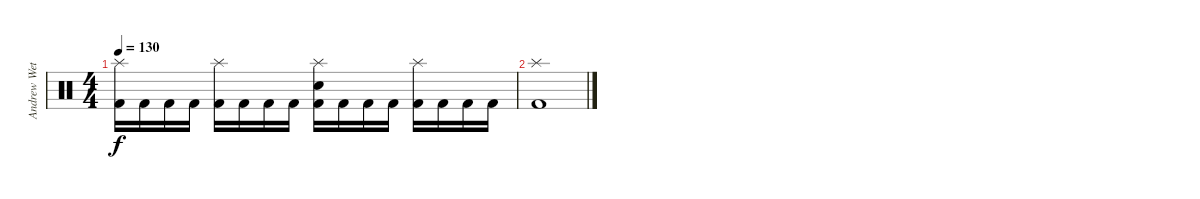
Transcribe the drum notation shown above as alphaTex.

\track ("Andrew Wetzel" "Andrew Wet") {instrument percussion}
\staff {score}
\articulation defaults
\ts (4 4)
\tempo 130
\clef neutral
\ks c
("Splash (hit)" "Kick (hit) 2").16{dy f} "Kick (hit) 2".16 "Kick (hit) 2".16 "Kick (hit) 2".16 ("Splash (hit)" "Kick (hit) 2").16 "Kick (hit) 2".16 "Kick (hit) 2".16 "Kick (hit) 2".16 ("Splash (hit)" "Electric Snare (hit)" "Kick (hit) 2").16 "Kick (hit) 2".16 "Kick (hit) 2".16 "Kick (hit) 2".16 ("Splash (hit)" "Kick (hit) 2").16 "Kick (hit) 2".16 "Kick (hit) 2".16 "Kick (hit) 2".16 |
("Splash (hit)" "Kick (hit) 2").1
